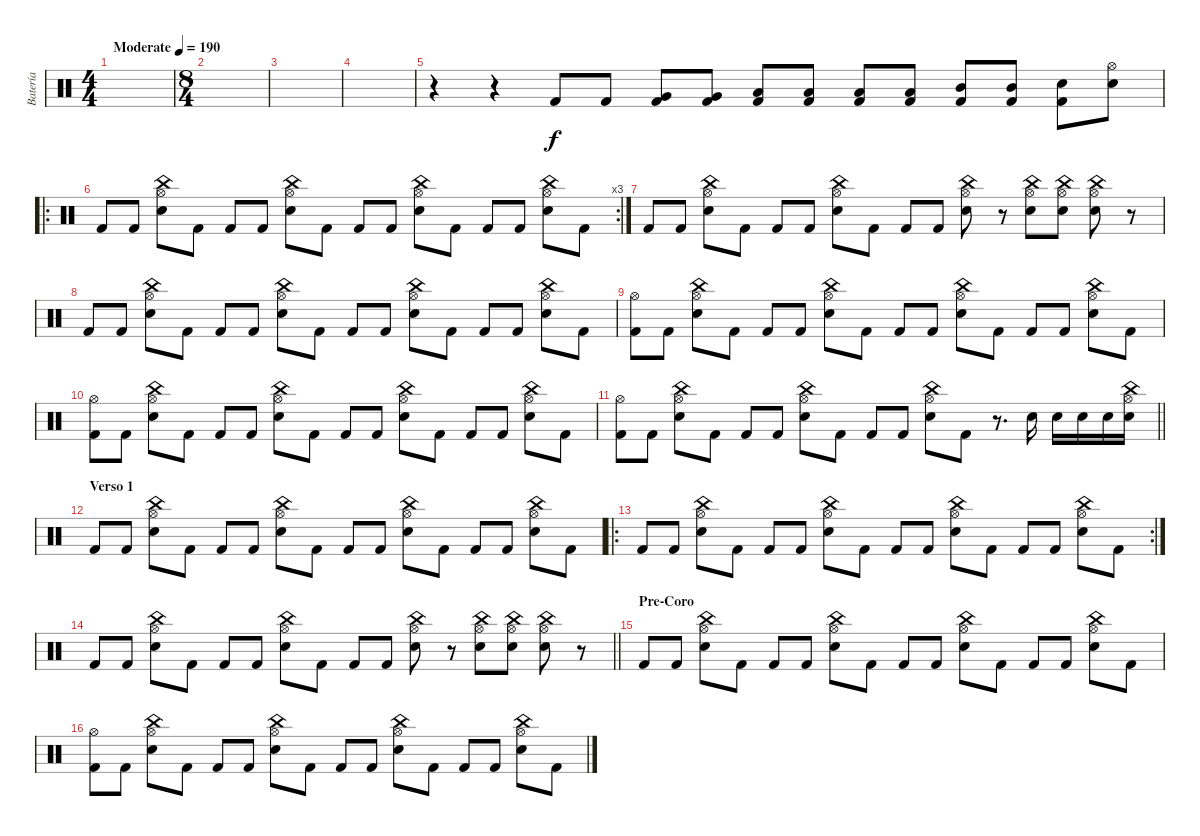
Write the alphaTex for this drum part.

\track ("Batería" "Batería") {instrument percussion}
\staff {score}
\articulation defaults
\ts (4 4)
\tempo (190 "Moderate")
\clef neutral
\ks c
|
\ts (8 4)
|
|
|
r.4 r.4 "Kick (hit) 2".8 "Kick (hit) 2".8 ("Kick (hit) 2" "Very Low Tom (hit)").8 ("Kick (hit) 2" "Very Low Tom (hit)").8 ("Kick (hit) 2" "Low Tom (hit)").8 ("Kick (hit) 2" "Low Tom (hit)").8 ("Kick (hit) 2" "Low Tom (hit)").8 ("Kick (hit) 2" "Low Tom (hit)").8 ("Kick (hit) 2" "Mid Tom (hit)").8 ("Kick (hit) 2" "Mid Tom (hit)").8 ("Kick (hit) 2" "Snare (hit) 2").8 ("Snare (hit) 2" "Hi-Hat (open)").8 |
\ro
\rc 3 "Kick (hit) 2".8 "Kick (hit) 2".8
("Snare (hit) 2" "Hi-Hat (open)" "China (hit)").8 "Kick (hit) 2".8 "Kick (hit) 2".8 "Kick (hit) 2".8 ("Snare (hit) 2" "Hi-Hat (open)" "China (hit)").8 "Kick (hit) 2".8 "Kick (hit) 2".8 "Kick (hit) 2".8 ("Snare (hit) 2" "Hi-Hat (open)" "China (hit)").8 "Kick (hit) 2".8 "Kick (hit) 2".8 "Kick (hit) 2".8 ("Snare (hit) 2" "Hi-Hat (open)" "China (hit)").8 "Kick (hit) 2".8 |
"Kick (hit) 2".8 "Kick (hit) 2".8 ("Snare (hit) 2" "Hi-Hat (open)" "China (hit)").8 "Kick (hit) 2".8 "Kick (hit) 2".8 "Kick (hit) 2".8 ("Snare (hit) 2" "Hi-Hat (open)" "China (hit)").8 "Kick (hit) 2".8 "Kick (hit) 2".8 "Kick (hit) 2".8 ("Snare (hit) 2" "Hi-Hat (open)" "China (hit)").8 r.8 ("Snare (hit) 2" "Hi-Hat (open)" "China (hit)").8 ("Snare (hit) 2" "Hi-Hat (open)" "China (hit)").8 ("Snare (hit) 2" "Hi-Hat (open)" "China (hit)").8 r.8 |
"Kick (hit) 2".8 "Kick (hit) 2".8 ("Snare (hit) 2" "Hi-Hat (open)" "China (hit)").8 "Kick (hit) 2".8 "Kick (hit) 2".8 "Kick (hit) 2".8 ("Snare (hit) 2" "Hi-Hat (open)" "China (hit)").8 "Kick (hit) 2".8 "Kick (hit) 2".8 "Kick (hit) 2".8 ("Snare (hit) 2" "Hi-Hat (open)" "China (hit)").8 "Kick (hit) 2".8 "Kick (hit) 2".8 "Kick (hit) 2".8 ("Snare (hit) 2" "Hi-Hat (open)" "China (hit)").8 "Kick (hit) 2".8 |
("Kick (hit) 2" "Hi-Hat (open)").8 "Kick (hit) 2".8 ("Snare (hit) 2" "Hi-Hat (open)" "China (hit)").8 "Kick (hit) 2".8 "Kick (hit) 2".8 "Kick (hit) 2".8 ("Snare (hit) 2" "Hi-Hat (open)" "China (hit)").8 "Kick (hit) 2".8 "Kick (hit) 2".8 "Kick (hit) 2".8 ("Snare (hit) 2" "Hi-Hat (open)" "China (hit)").8 "Kick (hit) 2".8 "Kick (hit) 2".8 "Kick (hit) 2".8 ("Snare (hit) 2" "Hi-Hat (open)" "China (hit)").8 "Kick (hit) 2".8 |
("Kick (hit) 2" "Hi-Hat (open)").8 "Kick (hit) 2".8 ("Snare (hit) 2" "Hi-Hat (open)" "China (hit)").8 "Kick (hit) 2".8 "Kick (hit) 2".8 "Kick (hit) 2".8 ("Snare (hit) 2" "Hi-Hat (open)" "China (hit)").8 "Kick (hit) 2".8 "Kick (hit) 2".8 "Kick (hit) 2".8 ("Snare (hit) 2" "Hi-Hat (open)" "China (hit)").8 "Kick (hit) 2".8 "Kick (hit) 2".8 "Kick (hit) 2".8 ("Snare (hit) 2" "Hi-Hat (open)" "China (hit)").8 "Kick (hit) 2".8 |
\barLineRight lightlight
("Kick (hit) 2" "Hi-Hat (open)").8 "Kick (hit) 2".8 ("Snare (hit) 2" "Hi-Hat (open)" "China (hit)").8 "Kick (hit) 2".8 "Kick (hit) 2".8 "Kick (hit) 2".8 ("Snare (hit) 2" "Hi-Hat (open)" "China (hit)").8 "Kick (hit) 2".8 "Kick (hit) 2".8 "Kick (hit) 2".8 ("Snare (hit) 2" "Hi-Hat (open)" "China (hit)").8 "Kick (hit) 2".8 r.8{d} "Snare (hit) 2".16 "Snare (hit) 2".16 "Snare (hit) 2".16 "Snare (hit) 2".16 ("Snare (hit) 2" "Hi-Hat (open)" "China (hit)").16 |
\section ("" "Verso 1 ")
"Kick (hit) 2".8 "Kick (hit) 2".8 ("Snare (hit) 2" "Hi-Hat (open)" "China (hit)").8 "Kick (hit) 2".8 "Kick (hit) 2".8 "Kick (hit) 2".8 ("Snare (hit) 2" "Hi-Hat (open)" "China (hit)").8 "Kick (hit) 2".8 "Kick (hit) 2".8 "Kick (hit) 2".8 ("Snare (hit) 2" "Hi-Hat (open)" "China (hit)").8 "Kick (hit) 2".8 "Kick (hit) 2".8 "Kick (hit) 2".8 ("Snare (hit) 2" "Hi-Hat (open)" "China (hit)").8 "Kick (hit) 2".8 |
\ro
\rc 2 "Kick (hit) 2".8 "Kick (hit) 2".8
("Snare (hit) 2" "Hi-Hat (open)" "China (hit)").8 "Kick (hit) 2".8 "Kick (hit) 2".8 "Kick (hit) 2".8 ("Snare (hit) 2" "Hi-Hat (open)" "China (hit)").8 "Kick (hit) 2".8 "Kick (hit) 2".8 "Kick (hit) 2".8 ("Snare (hit) 2" "Hi-Hat (open)" "China (hit)").8 "Kick (hit) 2".8 "Kick (hit) 2".8 "Kick (hit) 2".8 ("Snare (hit) 2" "Hi-Hat (open)" "China (hit)").8 "Kick (hit) 2".8 |
\barLineRight lightlight "Kick (hit) 2".8 "Kick (hit) 2".8
("Snare (hit) 2" "Hi-Hat (open)" "China (hit)").8 "Kick (hit) 2".8 "Kick (hit) 2".8 "Kick (hit) 2".8 ("Snare (hit) 2" "Hi-Hat (open)" "China (hit)").8 "Kick (hit) 2".8 "Kick (hit) 2".8 "Kick (hit) 2".8 ("Snare (hit) 2" "Hi-Hat (open)" "China (hit)").8 r.8 ("Snare (hit) 2" "Hi-Hat (open)" "China (hit)").8 ("Snare (hit) 2" "Hi-Hat (open)" "China (hit)").8 ("Snare (hit) 2" "Hi-Hat (open)" "China (hit)").8 r.8 |
\section ("" "Pre-Coro")
"Kick (hit) 2".8 "Kick (hit) 2".8 ("Snare (hit) 2" "Hi-Hat (open)" "China (hit)").8 "Kick (hit) 2".8 "Kick (hit) 2".8 "Kick (hit) 2".8 ("Snare (hit) 2" "Hi-Hat (open)" "China (hit)").8 "Kick (hit) 2".8 "Kick (hit) 2".8 "Kick (hit) 2".8 ("Snare (hit) 2" "Hi-Hat (open)" "China (hit)").8 "Kick (hit) 2".8 "Kick (hit) 2".8 "Kick (hit) 2".8 ("Snare (hit) 2" "Hi-Hat (open)" "China (hit)").8 "Kick (hit) 2".8 |
("Kick (hit) 2" "Hi-Hat (open)").8 "Kick (hit) 2".8 ("Snare (hit) 2" "Hi-Hat (open)" "China (hit)").8 "Kick (hit) 2".8 "Kick (hit) 2".8 "Kick (hit) 2".8 ("Snare (hit) 2" "Hi-Hat (open)" "China (hit)").8 "Kick (hit) 2".8 "Kick (hit) 2".8 "Kick (hit) 2".8 ("Snare (hit) 2" "Hi-Hat (open)" "China (hit)").8 "Kick (hit) 2".8 "Kick (hit) 2".8 "Kick (hit) 2".8 ("Snare (hit) 2" "Hi-Hat (open)" "China (hit)").8 "Kick (hit) 2".8
